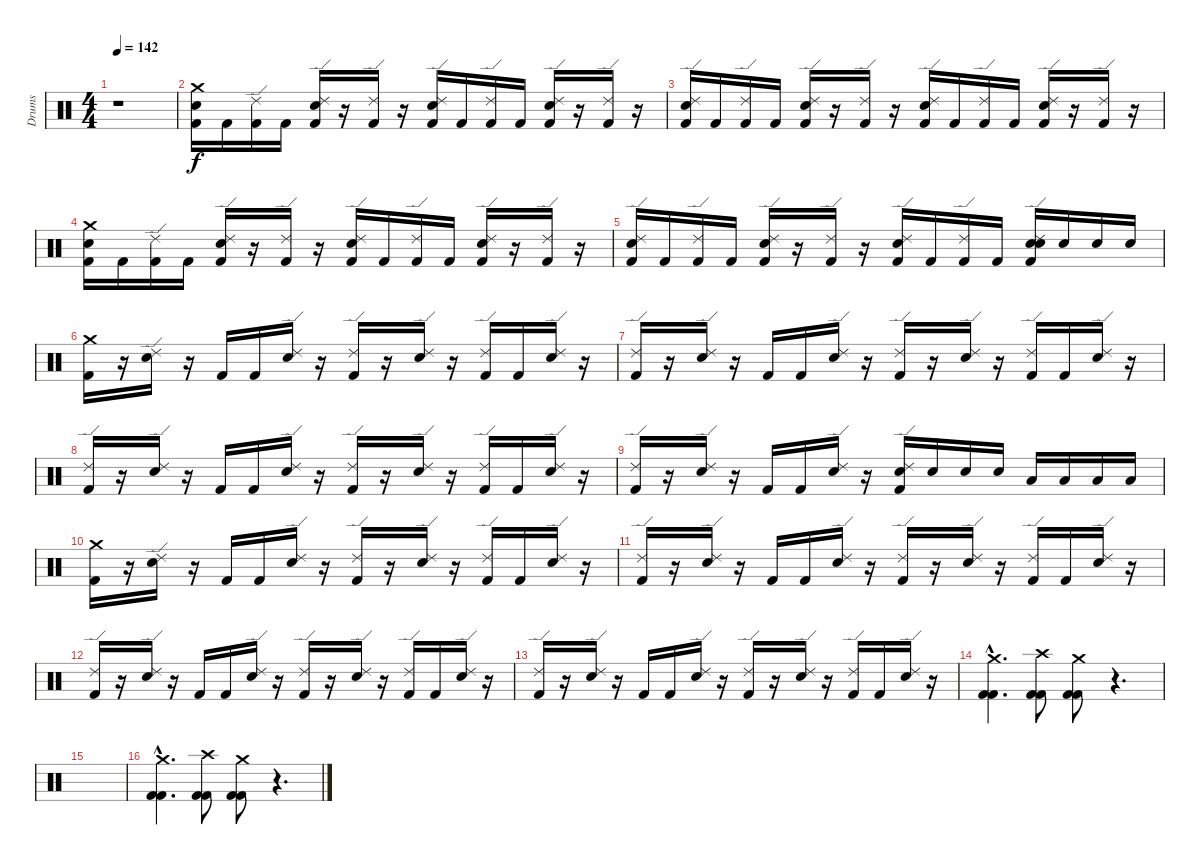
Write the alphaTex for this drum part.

\track ("Drums" "Drums") {instrument percussion}
\staff {score}
\articulation defaults
\ts (4 4)
\tempo 142
\clef neutral
\ks c
r.1{dy f} |
("Kick (hit) 2" "Snare (hit) 2" "Crash medium (hit)").16 "Kick (hit) 2".16 ("Kick (hit) 2" "Ride (edge) 2").16 "Kick (hit) 2".16 ("Kick (hit) 2" "Ride (edge) 2" "Snare (hit) 2").16 r.16 ("Kick (hit) 2" "Ride (edge) 2").16 r.16 ("Kick (hit) 2" "Ride (edge) 2" "Snare (hit) 2").16 "Kick (hit) 2".16 ("Kick (hit) 2" "Ride (edge) 2").16 "Kick (hit) 2".16 ("Kick (hit) 2" "Ride (edge) 2" "Snare (hit) 2").16 r.16 ("Kick (hit) 2" "Ride (edge) 2").16 r.16 |
("Kick (hit) 2" "Snare (hit) 2" "Ride (edge) 2").16 "Kick (hit) 2".16 ("Kick (hit) 2" "Ride (edge) 2").16 "Kick (hit) 2".16 ("Kick (hit) 2" "Ride (edge) 2" "Snare (hit) 2").16 r.16 ("Kick (hit) 2" "Ride (edge) 2").16 r.16 ("Kick (hit) 2" "Ride (edge) 2" "Snare (hit) 2").16 "Kick (hit) 2".16 ("Kick (hit) 2" "Ride (edge) 2").16 "Kick (hit) 2".16 ("Kick (hit) 2" "Ride (edge) 2" "Snare (hit) 2").16 r.16 ("Kick (hit) 2" "Ride (edge) 2").16 r.16 |
("Kick (hit) 2" "Snare (hit) 2" "Crash medium (hit)").16 "Kick (hit) 2".16 ("Kick (hit) 2" "Ride (edge) 2").16 "Kick (hit) 2".16 ("Kick (hit) 2" "Ride (edge) 2" "Snare (hit) 2").16 r.16 ("Kick (hit) 2" "Ride (edge) 2").16 r.16 ("Kick (hit) 2" "Ride (edge) 2" "Snare (hit) 2").16 "Kick (hit) 2".16 ("Kick (hit) 2" "Ride (edge) 2").16 "Kick (hit) 2".16 ("Kick (hit) 2" "Ride (edge) 2" "Snare (hit) 2").16 r.16 ("Kick (hit) 2" "Ride (edge) 2").16 r.16 |
("Kick (hit) 2" "Snare (hit) 2" "Ride (edge) 2").16 "Kick (hit) 2".16 ("Kick (hit) 2" "Ride (edge) 2").16 "Kick (hit) 2".16 ("Kick (hit) 2" "Ride (edge) 2" "Snare (hit) 2").16 r.16 ("Kick (hit) 2" "Ride (edge) 2").16 r.16 ("Kick (hit) 2" "Ride (edge) 2" "Snare (hit) 2").16 "Kick (hit) 2".16 ("Kick (hit) 2" "Ride (edge) 2").16 "Kick (hit) 2".16 ("Kick (hit) 2" "Snare (hit) 2" "Ride (edge) 2" "Snare (hit) 2").16 "Snare (hit) 2".16 "Snare (hit) 2".16 "Snare (hit) 2".16 |
("Kick (hit) 2" "Crash medium (hit)").16 r.16 ("Ride (edge) 2" "Snare (hit) 2").16 r.16 "Kick (hit) 2".16 "Kick (hit) 2".16 ("Ride (edge) 2" "Snare (hit) 2").16 r.16 ("Kick (hit) 2" "Ride (edge) 2").16 r.16 ("Ride (edge) 2" "Snare (hit) 2").16 r.16 ("Kick (hit) 2" "Ride (edge) 2").16 "Kick (hit) 2".16 ("Ride (edge) 2" "Snare (hit) 2").16 r.16 |
("Kick (hit) 2" "Ride (edge) 2").16 r.16 ("Ride (edge) 2" "Snare (hit) 2").16 r.16 "Kick (hit) 2".16 "Kick (hit) 2".16 ("Ride (edge) 2" "Snare (hit) 2").16 r.16 ("Kick (hit) 2" "Ride (edge) 2").16 r.16 ("Ride (edge) 2" "Snare (hit) 2").16 r.16 ("Kick (hit) 2" "Ride (edge) 2").16 "Kick (hit) 2".16 ("Ride (edge) 2" "Snare (hit) 2").16 r.16 |
("Kick (hit) 2" "Ride (edge) 2").16 r.16 ("Ride (edge) 2" "Snare (hit) 2").16 r.16 "Kick (hit) 2".16 "Kick (hit) 2".16 ("Ride (edge) 2" "Snare (hit) 2").16 r.16 ("Kick (hit) 2" "Ride (edge) 2").16 r.16 ("Ride (edge) 2" "Snare (hit) 2").16 r.16 ("Kick (hit) 2" "Ride (edge) 2").16 "Kick (hit) 2".16 ("Ride (edge) 2" "Snare (hit) 2").16 r.16 |
("Kick (hit) 2" "Ride (edge) 2").16 r.16 ("Ride (edge) 2" "Snare (hit) 2").16 r.16 "Kick (hit) 2".16 "Kick (hit) 2".16 ("Ride (edge) 2" "Snare (hit) 2").16 r.16 ("Kick (hit) 2" "Ride (edge) 2" "Snare (hit) 2").16 "Snare (hit) 2".16 "Snare (hit) 2".16 "Snare (hit) 2".16 "Low Tom (hit)".16 "Low Tom (hit)".16 "Low Tom (hit)".16 "Low Tom (hit)".16 |
("Kick (hit) 2" "Crash medium (hit)").16 r.16 ("Ride (edge) 2" "Snare (hit) 2").16 r.16 "Kick (hit) 2".16 "Kick (hit) 2".16 ("Ride (edge) 2" "Snare (hit) 2").16 r.16 ("Kick (hit) 2" "Ride (edge) 2").16 r.16 ("Ride (edge) 2" "Snare (hit) 2").16 r.16 ("Kick (hit) 2" "Ride (edge) 2").16 "Kick (hit) 2".16 ("Ride (edge) 2" "Snare (hit) 2").16 r.16 |
("Kick (hit) 2" "Ride (edge) 2").16 r.16 ("Ride (edge) 2" "Snare (hit) 2").16 r.16 "Kick (hit) 2".16 "Kick (hit) 2".16 ("Ride (edge) 2" "Snare (hit) 2").16 r.16 ("Kick (hit) 2" "Ride (edge) 2").16 r.16 ("Ride (edge) 2" "Snare (hit) 2").16 r.16 ("Kick (hit) 2" "Ride (edge) 2").16 "Kick (hit) 2".16 ("Ride (edge) 2" "Snare (hit) 2").16 r.16 |
("Kick (hit) 2" "Ride (edge) 2").16 r.16 ("Ride (edge) 2" "Snare (hit) 2").16 r.16 "Kick (hit) 2".16 "Kick (hit) 2".16 ("Ride (edge) 2" "Snare (hit) 2").16 r.16 ("Kick (hit) 2" "Ride (edge) 2").16 r.16 ("Ride (edge) 2" "Snare (hit) 2").16 r.16 ("Kick (hit) 2" "Ride (edge) 2").16 "Kick (hit) 2".16 ("Ride (edge) 2" "Snare (hit) 2").16 r.16 |
("Kick (hit) 2" "Ride (edge) 2").16 r.16 ("Ride (edge) 2" "Snare (hit) 2").16 r.16 "Kick (hit) 2".16 "Kick (hit) 2".16 ("Ride (edge) 2" "Snare (hit) 2").16 r.16 ("Kick (hit) 2" "Ride (edge) 2").16 r.16 ("Ride (edge) 2" "Snare (hit) 2").16 r.16 ("Kick (hit) 2" "Ride (edge) 2").16 "Kick (hit) 2".16 ("Ride (edge) 2" "Snare (hit) 2").16 r.16 |
("Kick (hit) 2"{hac} "Kick (hit) 2"{hac} "Crash medium (hit)"{hac}).4{d} ("Kick (hit) 2" "Kick (hit) 2" "Crash high (hit)").8 ("Kick (hit) 2" "Kick (hit) 2" "Crash medium (hit)").8 r.4{d} |
|
("Kick (hit) 2"{hac} "Kick (hit) 2"{hac} "Crash medium (hit)"{hac}).4{d} ("Kick (hit) 2" "Kick (hit) 2" "Crash high (hit)").8 ("Kick (hit) 2" "Kick (hit) 2" "Crash medium (hit)").8 r.4{d}
